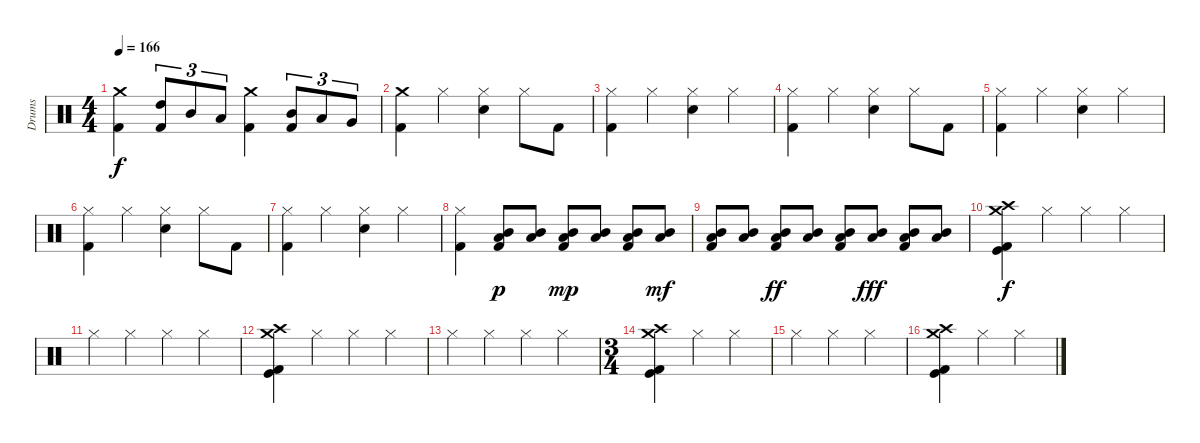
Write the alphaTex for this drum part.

\track ("Drums" "Drums") {instrument percussion}
\staff {score}
\articulation defaults
\ts (4 4)
\tempo 166
\clef neutral
\ks c
("Crash medium (hit)" "Kick (hit) 2").4{dy f} ("High Tom (hit)" "Kick (hit) 2").8{tu (3 2)} "Mid Tom (hit)".8{tu (3 2)} "Low Tom (hit)".8{tu (3 2)} ("Crash medium (hit)" "Kick (hit) 2").4 ("Mid Tom (hit)" "Kick (hit) 2").8{tu (3 2)} "Low Tom (hit)".8{tu (3 2)} "Very Low Tom (hit)".8{tu (3 2)} |
("Crash medium (hit)" "Kick (hit) 2").4 "Hi-Hat (closed)".4 ("Hi-Hat (closed)" "Snare (hit) 2").4 "Hi-Hat (closed)".8 "Kick (hit) 2".8 |
("Hi-Hat (closed)" "Kick (hit) 2").4 "Hi-Hat (closed)".4 ("Hi-Hat (closed)" "Snare (hit) 2").4 "Hi-Hat (closed)".4 |
("Hi-Hat (closed)" "Kick (hit) 2").4 "Hi-Hat (closed)".4 ("Hi-Hat (closed)" "Snare (hit) 2").4 "Hi-Hat (closed)".8 "Kick (hit) 2".8 |
("Hi-Hat (closed)" "Kick (hit) 2").4 "Hi-Hat (closed)".4 ("Hi-Hat (closed)" "Snare (hit) 2").4 "Hi-Hat (closed)".4 |
("Hi-Hat (closed)" "Kick (hit) 2").4 "Hi-Hat (closed)".4 ("Hi-Hat (closed)" "Snare (hit) 2").4 "Hi-Hat (closed)".8 "Kick (hit) 2".8 |
("Hi-Hat (closed)" "Kick (hit) 2").4 "Hi-Hat (closed)".4 ("Hi-Hat (closed)" "Snare (hit) 2").4 "Hi-Hat (closed)".4 |
("Hi-Hat (closed)" "Kick (hit) 2").4 ("Mid Tom (hit)" "Low Tom (hit)" "Kick (hit) 2").8{dy p} ("Mid Tom (hit)" "Low Tom (hit)").8 ("Mid Tom (hit)" "Low Tom (hit)" "Kick (hit) 2").8{dy mp} ("Mid Tom (hit)" "Low Tom (hit)").8 ("Mid Tom (hit)" "Low Tom (hit)" "Kick (hit) 2").8 ("Mid Tom (hit)" "Low Tom (hit)").8{dy mf} |
("Mid Tom (hit)" "Low Tom (hit)" "Kick (hit) 2").8 ("Mid Tom (hit)" "Low Tom (hit)").8 ("Mid Tom (hit)" "Low Tom (hit)" "Kick (hit) 2").8{dy ff} ("Mid Tom (hit)" "Low Tom (hit)").8 ("Mid Tom (hit)" "Low Tom (hit)" "Kick (hit) 2").8 ("Mid Tom (hit)" "Low Tom (hit)").8{dy fff} ("Mid Tom (hit)" "Low Tom (hit)" "Kick (hit) 2").8 ("Mid Tom (hit)" "Low Tom (hit)").8 |
("Crash medium (hit)" "Crash high (hit)" "Kick (hit)" "Kick (hit) 2").4{dy f} "Hi-Hat (closed)".4 "Hi-Hat (closed)".4 "Hi-Hat (closed)".4 |
"Hi-Hat (closed)".4 "Hi-Hat (closed)".4 "Hi-Hat (closed)".4 "Hi-Hat (closed)".4 |
("Crash medium (hit)" "Crash high (hit)" "Kick (hit)" "Kick (hit) 2").4 "Hi-Hat (closed)".4 "Hi-Hat (closed)".4 "Hi-Hat (closed)".4 |
"Hi-Hat (closed)".4 "Hi-Hat (closed)".4 "Hi-Hat (closed)".4 "Hi-Hat (closed)".4 |
\ts (3 4)
("Crash medium (hit)" "Crash high (hit)" "Kick (hit)" "Kick (hit) 2").4 "Hi-Hat (closed)".4 "Hi-Hat (closed)".4 |
"Hi-Hat (closed)".4 "Hi-Hat (closed)".4 "Hi-Hat (closed)".4 |
("Crash medium (hit)" "Crash high (hit)" "Kick (hit)" "Kick (hit) 2").4 "Hi-Hat (closed)".4 "Hi-Hat (closed)".4
